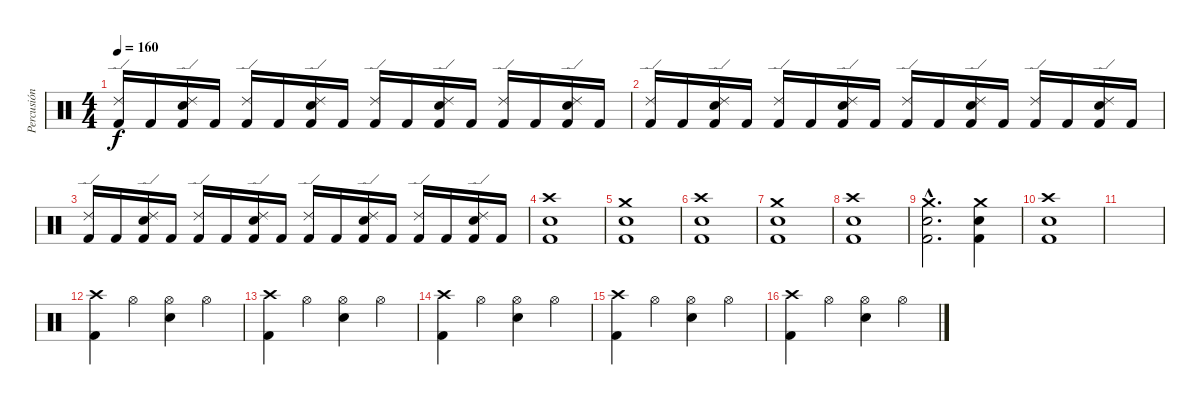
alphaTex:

\track ("Percusión" "Percusión") {instrument percussion}
\staff {score}
\articulation defaults
\ts (4 4)
\tempo 160
\clef neutral
\ks c
("Kick (hit) 2" "Ride (edge) 2").16{dy f} "Kick (hit) 2".16 ("Kick (hit) 2" "Snare (hit) 2" "Ride (edge) 2").16 "Kick (hit) 2".16 ("Kick (hit) 2" "Ride (edge) 2").16 "Kick (hit) 2".16 ("Kick (hit) 2" "Snare (hit) 2" "Ride (edge) 2").16 "Kick (hit) 2".16 ("Kick (hit) 2" "Ride (edge) 2").16 "Kick (hit) 2".16 ("Kick (hit) 2" "Snare (hit) 2" "Ride (edge) 2").16 "Kick (hit) 2".16 ("Kick (hit) 2" "Ride (edge) 2").16 "Kick (hit) 2".16 ("Kick (hit) 2" "Snare (hit) 2" "Ride (edge) 2").16 "Kick (hit) 2".16 |
("Kick (hit) 2" "Ride (edge) 2").16 "Kick (hit) 2".16 ("Kick (hit) 2" "Snare (hit) 2" "Ride (edge) 2").16 "Kick (hit) 2".16 ("Kick (hit) 2" "Ride (edge) 2").16 "Kick (hit) 2".16 ("Kick (hit) 2" "Snare (hit) 2" "Ride (edge) 2").16 "Kick (hit) 2".16 ("Kick (hit) 2" "Ride (edge) 2").16 "Kick (hit) 2".16 ("Kick (hit) 2" "Snare (hit) 2" "Ride (edge) 2").16 "Kick (hit) 2".16 ("Kick (hit) 2" "Ride (edge) 2").16 "Kick (hit) 2".16 ("Kick (hit) 2" "Snare (hit) 2" "Ride (edge) 2").16 "Kick (hit) 2".16 |
("Kick (hit) 2" "Ride (edge) 2").16 "Kick (hit) 2".16 ("Kick (hit) 2" "Snare (hit) 2" "Ride (edge) 2").16 "Kick (hit) 2".16 ("Kick (hit) 2" "Ride (edge) 2").16 "Kick (hit) 2".16 ("Kick (hit) 2" "Snare (hit) 2" "Ride (edge) 2").16 "Kick (hit) 2".16 ("Kick (hit) 2" "Ride (edge) 2").16 "Kick (hit) 2".16 ("Kick (hit) 2" "Snare (hit) 2" "Ride (edge) 2").16 "Kick (hit) 2".16 ("Kick (hit) 2" "Ride (edge) 2").16 "Kick (hit) 2".16 ("Kick (hit) 2" "Snare (hit) 2" "Ride (edge) 2").16 "Kick (hit) 2".16 |
("Kick (hit) 2" "Snare (hit) 2" "Crash high (hit)").1 |
("Kick (hit) 2" "Snare (hit) 2" "Crash medium (hit)").1 |
("Kick (hit) 2" "Snare (hit) 2" "Crash high (hit)").1 |
("Kick (hit) 2" "Snare (hit) 2" "Crash medium (hit)").1 |
("Kick (hit) 2" "Snare (hit) 2" "Crash high (hit)").1 |
("Kick (hit) 2"{hac} "Snare (hit) 2"{hac} "Crash medium (hit)"{hac}).2{d} ("Kick (hit) 2" "Snare (hit) 2" "Crash medium (hit)").4 |
("Kick (hit) 2" "Snare (hit) 2" "Crash high (hit)").1 |
|
("Crash high (hit)" "Kick (hit) 2").4 "Hi-Hat (open)".4 ("Hi-Hat (open)" "Snare (hit) 2").4 "Hi-Hat (open)".4 |
("Crash high (hit)" "Kick (hit) 2").4 "Hi-Hat (open)".4 ("Hi-Hat (open)" "Snare (hit) 2").4 "Hi-Hat (open)".4 |
("Crash high (hit)" "Kick (hit) 2").4 "Hi-Hat (open)".4 ("Hi-Hat (open)" "Snare (hit) 2").4 "Hi-Hat (open)".4 |
("Crash high (hit)" "Kick (hit) 2").4 "Hi-Hat (open)".4 ("Hi-Hat (open)" "Snare (hit) 2").4 "Hi-Hat (open)".4 |
("Crash high (hit)" "Kick (hit) 2").4 "Hi-Hat (open)".4 ("Hi-Hat (open)" "Snare (hit) 2").4 "Hi-Hat (open)".4
